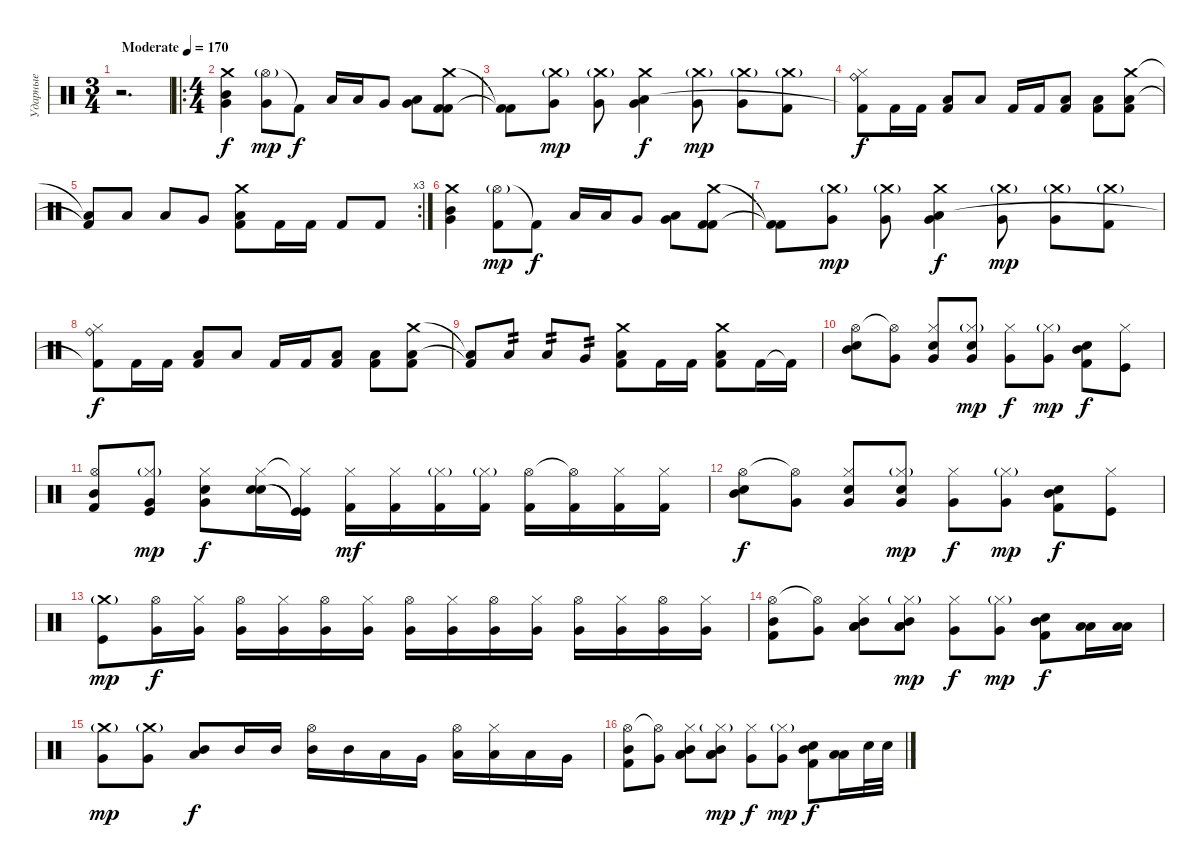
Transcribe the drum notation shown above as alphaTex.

\track ("Ударные" "Ударные") {instrument percussion}
\staff {score}
\articulation defaults
\ts (3 4)
\tempo (170 "Moderate")
\clef neutral
\ks c
r.2{d dy f} |
\ro
\ts (4 4)
("Crash medium (hit)" "Mid Tom (hit)" "Very Low Tom (hit)").4 ("Hi-Hat (open)"{g} "Very Low Tom (hit)").8{dy mp} "Kick (hit) 2"{t}.8{dy f} "Low Tom (hit)".16 "Low Tom (hit)".16 "Very Low Tom (hit)".8 ("Low Tom (hit)" "Very Low Tom (hit)").8 ("Crash medium (hit)" "Kick (hit) 2" "Kick (hit) 2").8 |
("Kick (hit) 2"{t} "Kick (hit) 2"{t}).8 ("Crash medium (hit)"{g} "Very Low Tom (hit)").8{dy mp} ("Crash medium (hit)"{g} "Very Low Tom (hit)").8 ("Crash medium (hit)" "Very Low Tom (hit)" "Low Tom (hit)").4{dy f} ("Crash medium (hit)"{g} "Very Low Tom (hit)").8{dy mp} ("Crash medium (hit)"{g} "Very Low Tom (hit)").8 ("Crash medium (hit)"{g} "Kick (hit) 2").8 |
("Ride (bell)" "Hi-Hat (closed)" "Kick (hit) 2"{t}).8{dy f} "Kick (hit) 2".16 "Kick (hit) 2".16 ("Low Tom (hit)" "Kick (hit) 2").8 "Low Tom (hit)".8 "Kick (hit) 2".16 "Kick (hit) 2".16 ("Low Tom (hit)" "Kick (hit) 2").8 ("Low Tom (hit)" "Kick (hit) 2").8 ("Crash medium (hit)" "Low Tom (hit)" "Kick (hit) 2").8 |
\rc 3
("Low Tom (hit)"{t} "Kick (hit) 2"{t}).8 "Low Floor Tom (hit)".8 "Low Tom (hit)".8 "Very Low Tom (hit)".8 ("Crash medium (hit)" "Low Tom (hit)" "Kick (hit) 2").8 "Kick (hit) 2".16 "Kick (hit) 2".16 "Kick (hit) 2".8 "Kick (hit) 2".8 |
("Crash medium (hit)" "Mid Tom (hit)" "Very Low Tom (hit)").4 ("Hi-Hat (open)"{g} "Kick (hit) 2").8{dy mp} "Kick (hit) 2"{t}.8{dy f} "Low Tom (hit)".16 "Low Tom (hit)".16 "Very Low Tom (hit)".8 ("Low Tom (hit)" "Very Low Tom (hit)").8 ("Crash medium (hit)" "Kick (hit) 2" "Kick (hit) 2").8 |
("Kick (hit) 2"{t} "Kick (hit) 2"{t}).8 ("Crash medium (hit)"{g} "Very Low Tom (hit)").8{dy mp} ("Crash medium (hit)"{g} "Very Low Tom (hit)").8 ("Crash medium (hit)" "Very Low Tom (hit)" "Low Tom (hit)").4{dy f} ("Crash medium (hit)"{g} "Very Low Tom (hit)").8{dy mp} ("Crash medium (hit)"{g} "Very Low Tom (hit)").8 ("Crash medium (hit)"{g} "Kick (hit) 2").8 |
("Ride (bell)" "Hi-Hat (closed)" "Kick (hit) 2"{t}).8{dy f} "Kick (hit) 2".16 "Kick (hit) 2".16 ("Low Tom (hit)" "Kick (hit) 2").8 "Low Tom (hit)".8 "Kick (hit) 2".16 "Kick (hit) 2".16 ("Low Tom (hit)" "Kick (hit) 2").8 ("Low Tom (hit)" "Kick (hit) 2").8 ("Crash medium (hit)" "Low Tom (hit)" "Kick (hit) 2").8 |
("Low Tom (hit)"{t} "Kick (hit) 2"{t}).8 "Low Floor Tom (hit)".8{tp 2} "Low Tom (hit)".8{tp 2} "Very Low Tom (hit)".8{tp 2} ("Crash medium (hit)" "Low Tom (hit)" "Kick (hit) 2").8 "Kick (hit) 2".16 "Kick (hit) 2".16 ("Crash medium (hit)" "Low Tom (hit)" "Kick (hit) 2").8 "Kick (hit) 2".16 "Kick (hit) 2"{t}.16 |
("Hi-Hat (open)" "Electric Snare (hit)" "Mid Tom (hit)").8 ("Hi-Hat (open)"{t} "Very Low Tom (hit)").8 ("Hi-Hat (closed)" "Electric Snare (hit)" "Very Low Tom (hit)").8 ("Hi-Hat (closed)"{g} "Electric Snare (hit)" "Very Low Tom (hit)").8{dy mp} ("Hi-Hat (closed)" "Very Low Tom (hit)").8{dy f} ("Hi-Hat (closed)"{g} "Very Low Tom (hit)").8{dy mp} ("Kick (hit) 2" "Electric Snare (hit)" "Mid Tom (hit)").8{dy f} ("Hi-Hat (closed)" "Kick (hit)").8 |
("Hi-Hat (open)" "Kick (hit) 2" "Mid Tom (hit)").8 ("Hi-Hat (closed)"{g} "Kick (hit)" "Very Low Tom (hit)").8{dy mp} ("Hi-Hat (closed)" "Electric Snare (hit)" "Very Low Tom (hit)").8{dy f} ("Hi-Hat (closed)" "Snare (hit) 2" "Snare (hit) 2").16 ("Hi-Hat (closed)"{t} "Kick (hit)"{t} "Kick (hit)"{t}).16 ("Hi-Hat (closed)" "Kick (hit) 2").16{dy mf} ("Hi-Hat (closed)" "Kick (hit) 2").16 ("Hi-Hat (closed)"{g} "Kick (hit) 2").16 ("Hi-Hat (closed)"{g} "Kick (hit) 2").16 ("Hi-Hat (open)" "Kick (hit) 2").16 ("Hi-Hat (open)"{t} "Kick (hit) 2").16 ("Hi-Hat (closed)" "Kick (hit) 2").16 ("Hi-Hat (closed)" "Kick (hit) 2").16 |
("Hi-Hat (open)" "Electric Snare (hit)" "Mid Tom (hit)").8{dy f} ("Hi-Hat (open)"{t} "Very Low Tom (hit)").8 ("Hi-Hat (closed)" "Electric Snare (hit)" "Very Low Tom (hit)").8 ("Hi-Hat (closed)"{g} "Electric Snare (hit)" "Very Low Tom (hit)").8{dy mp} ("Hi-Hat (closed)" "Very Low Tom (hit)").8{dy f} ("Hi-Hat (closed)"{g} "Very Low Tom (hit)").8{dy mp} ("Kick (hit) 2" "Electric Snare (hit)" "Mid Tom (hit)").8{dy f} ("Hi-Hat (closed)" "Kick (hit)").8 |
("Crash medium (hit)"{g} "Kick (hit)").8{dy mp} ("Hi-Hat (open)" "Very Low Tom (hit)").16{dy f} ("Hi-Hat (closed)" "Very Low Tom (hit)").16 ("Hi-Hat (open)" "Very Low Tom (hit)").16 ("Hi-Hat (closed)" "Very Low Tom (hit)").16 ("Hi-Hat (open)" "Very Low Tom (hit)").16 ("Hi-Hat (closed)" "Very Low Tom (hit)").16 ("Hi-Hat (open)" "Very Low Tom (hit)").16 ("Hi-Hat (closed)" "Very Low Tom (hit)").16 ("Hi-Hat (open)" "Very Low Tom (hit)").16 ("Hi-Hat (closed)" "Very Low Tom (hit)").16 ("Hi-Hat (open)" "Very Low Tom (hit)").16 ("Hi-Hat (closed)" "Very Low Tom (hit)").16 ("Hi-Hat (open)" "Very Low Tom (hit)").16 ("Hi-Hat (closed)" "Very Low Tom (hit)").16 |
("Hi-Hat (open)" "Kick (hit) 2" "Mid Tom (hit)").8 ("Hi-Hat (open)"{t} "Very Low Tom (hit)").8 ("Hi-Hat (closed)" "Mid Tom (hit)" "Low Tom (hit)" "Low Tom (hit)").8 ("Hi-Hat (closed)"{g} "Mid Tom (hit)" "Low Tom (hit)" "Low Tom (hit)").8{dy mp} ("Hi-Hat (closed)" "Very Low Tom (hit)").8{dy f} ("Hi-Hat (closed)"{g} "Very Low Tom (hit)").8{dy mp} ("Kick (hit) 2" "Electric Snare (hit)" "Mid Tom (hit)").8{dy f} ("Low Tom (hit)" "Low Tom (hit)").16 ("Low Tom (hit)" "Low Tom (hit)").16 |
("Crash medium (hit)"{g} "Very Low Tom (hit)").8{dy mp} ("Crash medium (hit)"{g} "Very Low Tom (hit)").8 ("Mid Tom (hit)" "Low Tom (hit)").8{dy f} "Mid Tom (hit)".16 "Mid Tom (hit)".16 ("Hi-Hat (open)" "Mid Tom (hit)").16 "Mid Tom (hit)".16 "Low Tom (hit)".16 "Very Low Tom (hit)".16 ("Hi-Hat (open)" "Low Tom (hit)").16 ("Hi-Hat (closed)" "Low Tom (hit)").16 "Low Tom (hit)".16 "Very Low Tom (hit)".16 |
("Hi-Hat (open)" "Kick (hit) 2" "Mid Tom (hit)").8 ("Hi-Hat (open)"{t} "Very Low Tom (hit)").8 ("Hi-Hat (closed)" "Mid Tom (hit)" "Low Tom (hit)" "Low Tom (hit)").8 ("Hi-Hat (closed)"{g} "Mid Tom (hit)" "Low Tom (hit)" "Low Tom (hit)").8{dy mp} ("Hi-Hat (closed)" "Very Low Tom (hit)").8{dy f} ("Hi-Hat (closed)"{g} "Very Low Tom (hit)").8{dy mp} ("Kick (hit) 2" "Electric Snare (hit)" "Mid Tom (hit)").8{dy f} ("Low Tom (hit)" "Low Tom (hit)").16 "Snare (hit) 2".32 "Snare (hit) 2".32
